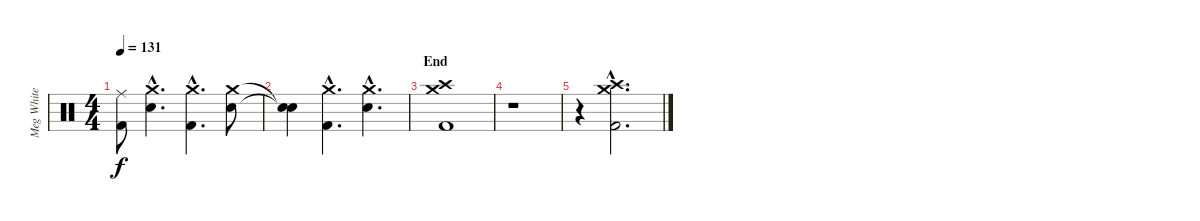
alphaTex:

\track ("Meg White" "Meg White") {instrument percussion}
\staff {score}
\articulation defaults
\ts (4 4)
\tempo 131
\clef neutral
\ks c
("Kick (hit) 2"{t} "Ride (middle)"{t}).8{dy f} ("Electric Snare (hit)"{hac} "Crash medium (hit)"{hac}).4{d} ("Kick (hit) 2"{hac} "Crash medium (hit)"{hac}).4{d} ("Electric Snare (hit)" "Crash medium (hit)").8 |
("Snare (hit)"{t} "Snare (hit)"{t}).4 ("Kick (hit) 2"{hac} "Crash medium (hit)"{hac}).4{d} ("Electric Snare (hit)"{hac} "Crash medium (hit)"{hac}).4{d} |
\section ("" "End")
("Kick (hit) 2" "Crash high (hit)" "Crash medium (hit)").1 |
r.1 |
r.4 ("Kick (hit) 2"{hac} "Crash high (hit)"{hac} "Crash medium (hit)"{hac}).2{d}
